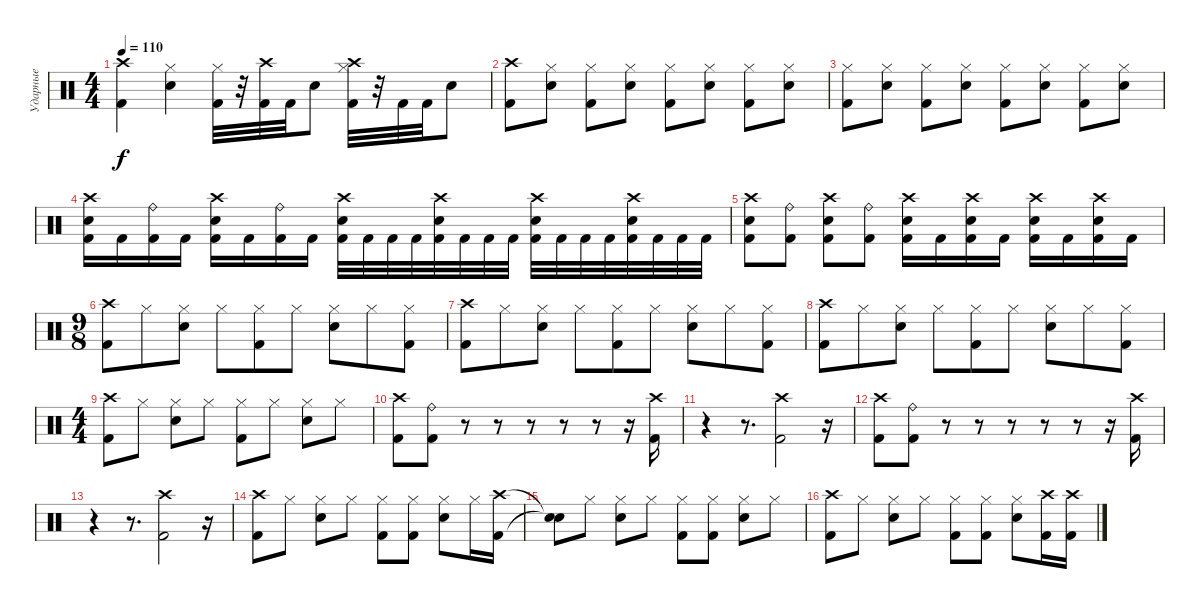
\track ("Ударные" "Ударные") {instrument percussion}
\staff {score}
\articulation defaults
\ts (4 4)
\tempo 110
\clef neutral
\ks c
("Crash high (hit)" "Kick (hit) 2").4{dy f} ("Hi-Hat (closed)" "Electric Snare (hit)").4 ("Kick (hit) 2" "Hi-Hat (closed)").32 r.32 ("Kick (hit) 2" "Crash high (hit)").32 "Kick (hit) 2".32 "Electric Snare (hit)".8 ("Hi-Hat (closed)" "Kick (hit) 2" "Crash high (hit)").32 r.32 "Kick (hit) 2".32 "Kick (hit) 2".32 "Electric Snare (hit)".8 |
("Crash high (hit)" "Kick (hit) 2").8 ("Electric Snare (hit)" "Hi-Hat (closed)").8 ("Kick (hit) 2" "Hi-Hat (closed)").8 ("Electric Snare (hit)" "Hi-Hat (closed)").8 ("Hi-Hat (closed)" "Kick (hit) 2").8 ("Hi-Hat (closed)" "Electric Snare (hit)").8 ("Hi-Hat (closed)" "Kick (hit) 2").8 ("Hi-Hat (closed)" "Electric Snare (hit)").8 |
("Hi-Hat (closed)" "Kick (hit) 2").8 ("Electric Snare (hit)" "Hi-Hat (closed)").8 ("Kick (hit) 2" "Hi-Hat (closed)").8 ("Electric Snare (hit)" "Hi-Hat (closed)").8 ("Hi-Hat (closed)" "Kick (hit) 2").8 ("Hi-Hat (closed)" "Electric Snare (hit)").8 ("Hi-Hat (closed)" "Kick (hit) 2").8 ("Hi-Hat (closed)" "Electric Snare (hit)").8 |
("Kick (hit) 2" "Electric Snare (hit)" "Crash high (hit)").16 "Kick (hit) 2".16 ("Kick (hit) 2" "Ride (bell)").16 "Kick (hit) 2".16 ("Kick (hit) 2" "Electric Snare (hit)" "Crash high (hit)").16 "Kick (hit) 2".16 ("Kick (hit) 2" "Ride (bell)").16 "Kick (hit) 2".16 ("Kick (hit) 2" "Electric Snare (hit)" "Crash high (hit)").32 "Kick (hit) 2".32 "Kick (hit) 2".32 "Kick (hit) 2".32 ("Kick (hit) 2" "Electric Snare (hit)" "Crash high (hit)").32 "Kick (hit) 2".32 "Kick (hit) 2".32 "Kick (hit) 2".32 ("Kick (hit) 2" "Electric Snare (hit)" "Crash high (hit)").32 "Kick (hit) 2".32 "Kick (hit) 2".32 "Kick (hit) 2".32 ("Kick (hit) 2" "Electric Snare (hit)" "Crash high (hit)").32 "Kick (hit) 2".32 "Kick (hit) 2".32 "Kick (hit) 2".32 |
("Kick (hit) 2" "Crash high (hit)" "Electric Snare (hit)").8 ("Kick (hit) 2" "Ride (bell)").8 ("Kick (hit) 2" "Electric Snare (hit)" "Crash high (hit)").8 ("Kick (hit) 2" "Ride (bell)").8 ("Kick (hit) 2" "Electric Snare (hit)" "Crash high (hit)").16 "Kick (hit) 2".16 ("Kick (hit) 2" "Electric Snare (hit)" "Crash high (hit)").16 "Kick (hit) 2".16 ("Kick (hit) 2" "Electric Snare (hit)" "Crash high (hit)").16 "Kick (hit) 2".16 ("Kick (hit) 2" "Electric Snare (hit)" "Crash high (hit)").16 "Kick (hit) 2".16 |
\ts (9 8)
("Kick (hit) 2" "Crash high (hit)").8 "Hi-Hat (closed)".8 ("Electric Snare (hit)" "Hi-Hat (closed)").8 "Hi-Hat (closed)".8 ("Kick (hit) 2" "Hi-Hat (closed)").8 "Hi-Hat (closed)".8 ("Electric Snare (hit)" "Hi-Hat (closed)").8 "Hi-Hat (closed)".8 ("Kick (hit) 2" "Hi-Hat (closed)").8 |
("Kick (hit) 2" "Crash high (hit)").8 "Hi-Hat (closed)".8 ("Electric Snare (hit)" "Hi-Hat (closed)").8 "Hi-Hat (closed)".8 ("Kick (hit) 2" "Hi-Hat (closed)").8 "Hi-Hat (closed)".8 ("Electric Snare (hit)" "Hi-Hat (closed)").8 "Hi-Hat (closed)".8 ("Kick (hit) 2" "Hi-Hat (closed)").8 |
("Kick (hit) 2" "Crash high (hit)").8 "Hi-Hat (closed)".8 ("Electric Snare (hit)" "Hi-Hat (closed)").8 "Hi-Hat (closed)".8 ("Kick (hit) 2" "Hi-Hat (closed)").8 "Hi-Hat (closed)".8 ("Electric Snare (hit)" "Hi-Hat (closed)").8 "Hi-Hat (closed)".8 ("Kick (hit) 2" "Hi-Hat (closed)").8 |
\ts (4 4)
("Kick (hit) 2" "Crash high (hit)").8 "Hi-Hat (closed)".8 ("Electric Snare (hit)" "Hi-Hat (closed)").8 "Hi-Hat (closed)".8 ("Kick (hit) 2" "Hi-Hat (closed)").8 "Hi-Hat (closed)".8 ("Electric Snare (hit)" "Hi-Hat (closed)").8 "Hi-Hat (closed)".8 |
("Crash high (hit)" "Kick (hit) 2").8 ("Kick (hit) 2" "Ride (bell)").8 r.8 r.8 r.8 r.8 r.8 r.16 ("Crash high (hit)" "Kick (hit) 2").16 |
r.4 r.8{d} ("Crash high (hit)" "Kick (hit) 2").2 r.16 |
("Crash high (hit)" "Kick (hit) 2").8 ("Kick (hit) 2" "Ride (bell)").8 r.8 r.8 r.8 r.8 r.8 r.16 ("Crash high (hit)" "Kick (hit) 2").16 |
r.4 r.8{d} ("Crash high (hit)" "Kick (hit) 2").2 r.16 |
("Kick (hit) 2" "Crash high (hit)").8 "Hi-Hat (closed)".8 ("Electric Snare (hit)" "Hi-Hat (closed)").8 "Hi-Hat (closed)".8 ("Kick (hit) 2" "Hi-Hat (closed)").8 ("Kick (hit) 2" "Hi-Hat (closed)").8 ("Electric Snare (hit)" "Hi-Hat (closed)").8 "Hi-Hat (closed)".16 ("Kick (hit) 2" "Crash high (hit)").16 |
("Snare (hit)"{t} "Snare (hit)"{t}).8 "Hi-Hat (closed)".8 ("Hi-Hat (closed)" "Electric Snare (hit)").8 "Hi-Hat (closed)".8 ("Hi-Hat (closed)" "Kick (hit) 2").8 ("Hi-Hat (closed)" "Kick (hit) 2").8 ("Hi-Hat (closed)" "Electric Snare (hit)").8 "Hi-Hat (closed)".8 |
("Kick (hit) 2" "Crash high (hit)").8 "Hi-Hat (closed)".8 ("Electric Snare (hit)" "Hi-Hat (closed)").8 "Hi-Hat (closed)".8 ("Kick (hit) 2" "Hi-Hat (closed)").8 ("Kick (hit) 2" "Hi-Hat (closed)").8 ("Electric Snare (hit)" "Hi-Hat (closed)").8 ("Kick (hit) 2" "Crash high (hit)").16 ("Kick (hit) 2" "Crash high (hit)").16
